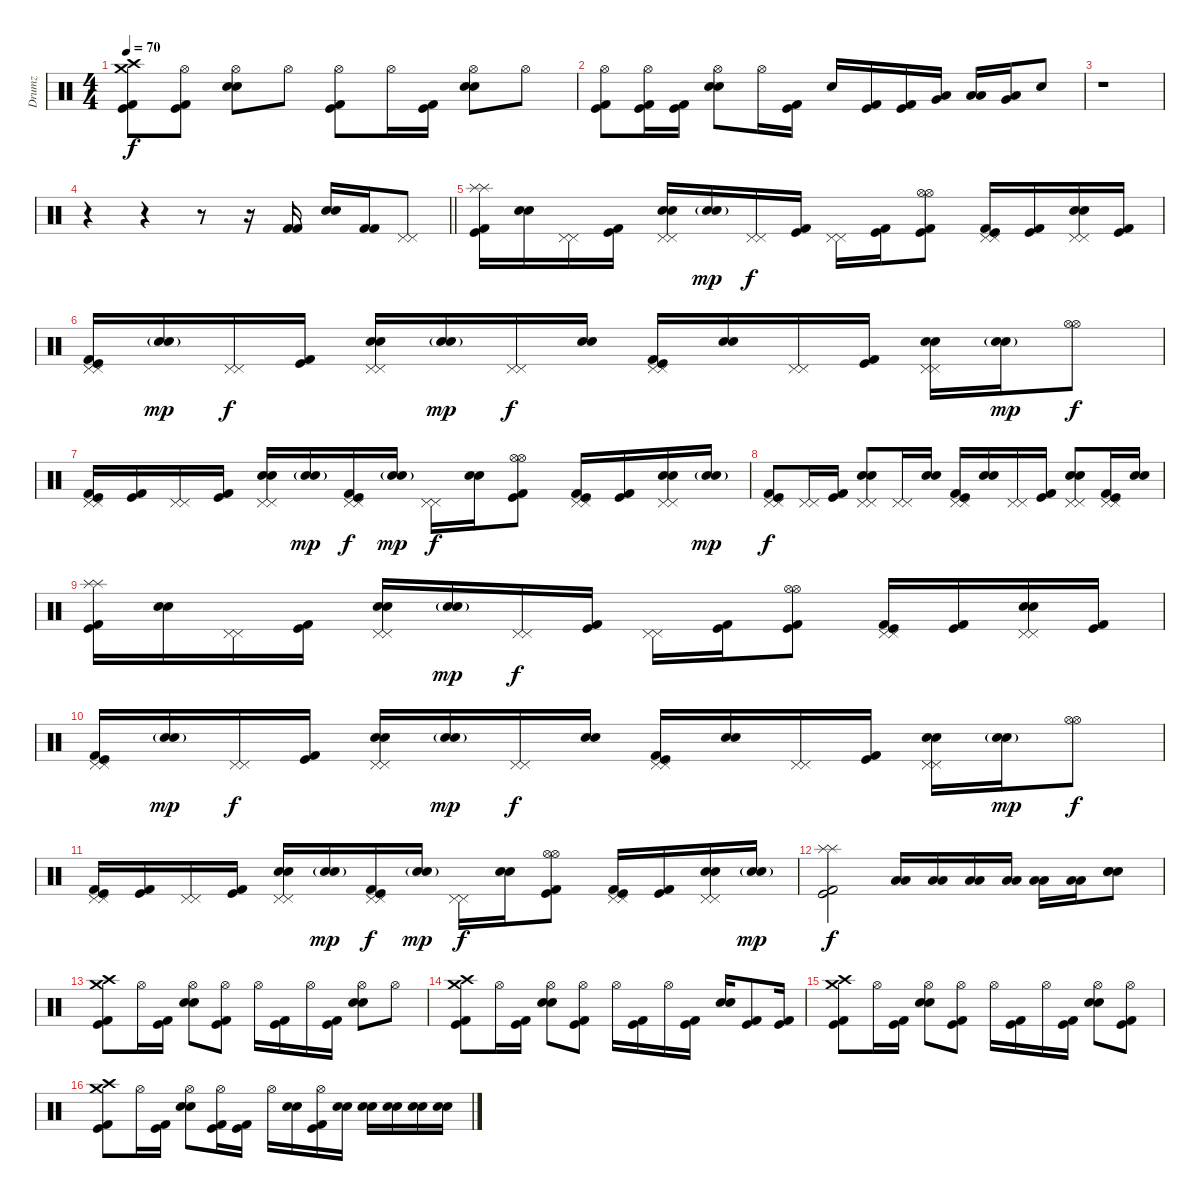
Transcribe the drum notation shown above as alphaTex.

\track ("Drumz" "Drumz") {instrument percussion}
\staff {score}
\articulation defaults
\ts (4 4)
\tempo 70
\clef neutral
\ks c
("Crash high (hit)" "Crash medium (hit)" "Kick (hit) 2" "Kick (hit)").8{dy f} ("Hi-Hat (open)" "Kick (hit) 2" "Kick (hit)").8 ("Hi-Hat (open)" "Electric Snare (hit)" "Electric Snare (hit)").8 "Hi-Hat (open)".8 ("Hi-Hat (open)" "Kick (hit) 2" "Kick (hit)").8 "Hi-Hat (open)".16 ("Kick (hit) 2" "Kick (hit)").16 ("Hi-Hat (open)" "Electric Snare (hit)" "Electric Snare (hit)").8 "Hi-Hat (open)".8 |
("Hi-Hat (open)" "Kick (hit) 2" "Kick (hit)").8 ("Hi-Hat (open)" "Kick (hit)" "Kick (hit) 2").16 ("Kick (hit)" "Kick (hit) 2").16 ("Hi-Hat (open)" "Electric Snare (hit)" "Electric Snare (hit)").8 "Hi-Hat (open)".16 ("Kick (hit)" "Kick (hit) 2").16 "Electric Snare (hit)".16 ("Kick (hit)" "Kick (hit) 2").16 ("Kick (hit)" "Kick (hit) 2").16 ("Very Low Tom (hit)" "Low Floor Tom (hit)").16 ("Low Tom (hit)" "Low Tom (hit)").16 ("Very Low Tom (hit)" "Low Floor Tom (hit)").16 "Snare (hit) 2".8 |
r.1 |
\barLineRight lightlight
r.4 r.4 r.8 r.16 ("Kick (hit) 2" "Kick (hit) 2").16 ("Snare (hit) 2" "Snare (hit) 2").16 ("Kick (hit) 2" "Kick (hit) 2").16 ("Pedal Hi-Hat (hit)" "Pedal Hi-Hat (hit)").8 |
("Splash (hit)" "Splash (hit)" "Kick (hit) 2" "Kick (hit)").16 ("Snare (hit) 2" "Snare (hit) 2").16 ("Pedal Hi-Hat (hit)" "Pedal Hi-Hat (hit)").16 ("Kick (hit) 2" "Kick (hit)").16 ("Pedal Hi-Hat (hit)" "Pedal Hi-Hat (hit)" "Snare (hit) 2" "Snare (hit) 2").16 ("Snare (hit) 2"{g} "Snare (hit) 2"{g}).16{dy mp} ("Pedal Hi-Hat (hit)" "Pedal Hi-Hat (hit)").16{dy f} ("Kick (hit) 2" "Kick (hit)").16 ("Pedal Hi-Hat (hit)" "Pedal Hi-Hat (hit)").16 ("Kick (hit) 2" "Kick (hit)").16 ("Hi-Hat (open)" "Hi-Hat (open)" "Kick (hit) 2" "Kick (hit)").8 ("Pedal Hi-Hat (hit)" "Pedal Hi-Hat (hit)" "Kick (hit) 2" "Kick (hit)").16 ("Kick (hit) 2" "Kick (hit)").16 ("Pedal Hi-Hat (hit)" "Pedal Hi-Hat (hit)" "Snare (hit) 2" "Snare (hit) 2").16 ("Kick (hit) 2" "Kick (hit)").16 |
("Pedal Hi-Hat (hit)" "Pedal Hi-Hat (hit)" "Kick (hit) 2" "Kick (hit)").16 ("Snare (hit) 2"{g} "Snare (hit) 2"{g}).16{dy mp} ("Pedal Hi-Hat (hit)" "Pedal Hi-Hat (hit)").16{dy f} ("Kick (hit) 2" "Kick (hit)").16 ("Pedal Hi-Hat (hit)" "Pedal Hi-Hat (hit)" "Snare (hit) 2" "Snare (hit) 2").16 ("Snare (hit) 2"{g} "Snare (hit) 2"{g}).16{dy mp} ("Pedal Hi-Hat (hit)" "Pedal Hi-Hat (hit)").16{dy f} ("Snare (hit) 2" "Snare (hit) 2").16 ("Pedal Hi-Hat (hit)" "Pedal Hi-Hat (hit)" "Kick (hit) 2" "Kick (hit)").16 ("Snare (hit) 2" "Snare (hit) 2").16 ("Pedal Hi-Hat (hit)" "Pedal Hi-Hat (hit)").16 ("Kick (hit) 2" "Kick (hit)").16 ("Pedal Hi-Hat (hit)" "Pedal Hi-Hat (hit)" "Snare (hit) 2" "Snare (hit) 2").16 ("Snare (hit) 2"{g} "Snare (hit) 2"{g}).16{dy mp} ("Hi-Hat (open)" "Hi-Hat (open)").8{dy f} |
("Pedal Hi-Hat (hit)" "Pedal Hi-Hat (hit)" "Kick (hit) 2" "Kick (hit)").16 ("Kick (hit) 2" "Kick (hit)").16 ("Pedal Hi-Hat (hit)" "Pedal Hi-Hat (hit)").16 ("Kick (hit) 2" "Kick (hit)").16 ("Pedal Hi-Hat (hit)" "Pedal Hi-Hat (hit)" "Snare (hit) 2" "Snare (hit) 2").16 ("Snare (hit) 2"{g} "Snare (hit) 2"{g}).16{dy mp} ("Pedal Hi-Hat (hit)" "Pedal Hi-Hat (hit)" "Kick (hit) 2" "Kick (hit)").16{dy f} ("Snare (hit) 2"{g} "Snare (hit) 2"{g}).16{dy mp} ("Pedal Hi-Hat (hit)" "Pedal Hi-Hat (hit)").16{dy f} ("Snare (hit) 2" "Snare (hit) 2").16 ("Hi-Hat (open)" "Hi-Hat (open)" "Kick (hit) 2" "Kick (hit)").8 ("Pedal Hi-Hat (hit)" "Pedal Hi-Hat (hit)" "Kick (hit) 2" "Kick (hit)").16 ("Kick (hit) 2" "Kick (hit)").16 ("Pedal Hi-Hat (hit)" "Pedal Hi-Hat (hit)" "Snare (hit) 2" "Snare (hit) 2").16 ("Snare (hit) 2"{g} "Snare (hit) 2"{g}).16{dy mp} |
("Pedal Hi-Hat (hit)" "Pedal Hi-Hat (hit)" "Kick (hit) 2" "Kick (hit)").8{dy f} ("Pedal Hi-Hat (hit)" "Pedal Hi-Hat (hit)").16 ("Kick (hit) 2" "Kick (hit)").16 ("Pedal Hi-Hat (hit)" "Pedal Hi-Hat (hit)" "Snare (hit) 2" "Snare (hit) 2").8 ("Pedal Hi-Hat (hit)" "Pedal Hi-Hat (hit)").16 ("Snare (hit) 2" "Snare (hit) 2").16 ("Pedal Hi-Hat (hit)" "Pedal Hi-Hat (hit)" "Kick (hit) 2" "Kick (hit)").16 ("Snare (hit) 2" "Snare (hit) 2").16 ("Pedal Hi-Hat (hit)" "Pedal Hi-Hat (hit)").16 ("Kick (hit) 2" "Kick (hit)").16 ("Pedal Hi-Hat (hit)" "Pedal Hi-Hat (hit)" "Snare (hit) 2" "Snare (hit) 2").8 ("Pedal Hi-Hat (hit)" "Pedal Hi-Hat (hit)" "Kick (hit) 2" "Kick (hit)").16 ("Snare (hit) 2" "Snare (hit) 2").16 |
("Splash (hit)" "Splash (hit)" "Kick (hit) 2" "Kick (hit)").16 ("Snare (hit) 2" "Snare (hit) 2").16 ("Pedal Hi-Hat (hit)" "Pedal Hi-Hat (hit)").16 ("Kick (hit) 2" "Kick (hit)").16 ("Pedal Hi-Hat (hit)" "Pedal Hi-Hat (hit)" "Snare (hit) 2" "Snare (hit) 2").16 ("Snare (hit) 2"{g} "Snare (hit) 2"{g}).16{dy mp} ("Pedal Hi-Hat (hit)" "Pedal Hi-Hat (hit)").16{dy f} ("Kick (hit) 2" "Kick (hit)").16 ("Pedal Hi-Hat (hit)" "Pedal Hi-Hat (hit)").16 ("Kick (hit) 2" "Kick (hit)").16 ("Hi-Hat (open)" "Hi-Hat (open)" "Kick (hit) 2" "Kick (hit)").8 ("Pedal Hi-Hat (hit)" "Pedal Hi-Hat (hit)" "Kick (hit) 2" "Kick (hit)").16 ("Kick (hit) 2" "Kick (hit)").16 ("Pedal Hi-Hat (hit)" "Pedal Hi-Hat (hit)" "Snare (hit) 2" "Snare (hit) 2").16 ("Kick (hit) 2" "Kick (hit)").16 |
("Pedal Hi-Hat (hit)" "Pedal Hi-Hat (hit)" "Kick (hit) 2" "Kick (hit)").16 ("Snare (hit) 2"{g} "Snare (hit) 2"{g}).16{dy mp} ("Pedal Hi-Hat (hit)" "Pedal Hi-Hat (hit)").16{dy f} ("Kick (hit) 2" "Kick (hit)").16 ("Pedal Hi-Hat (hit)" "Pedal Hi-Hat (hit)" "Snare (hit) 2" "Snare (hit) 2").16 ("Snare (hit) 2"{g} "Snare (hit) 2"{g}).16{dy mp} ("Pedal Hi-Hat (hit)" "Pedal Hi-Hat (hit)").16{dy f} ("Snare (hit) 2" "Snare (hit) 2").16 ("Pedal Hi-Hat (hit)" "Pedal Hi-Hat (hit)" "Kick (hit) 2" "Kick (hit)").16 ("Snare (hit) 2" "Snare (hit) 2").16 ("Pedal Hi-Hat (hit)" "Pedal Hi-Hat (hit)").16 ("Kick (hit) 2" "Kick (hit)").16 ("Pedal Hi-Hat (hit)" "Pedal Hi-Hat (hit)" "Snare (hit) 2" "Snare (hit) 2").16 ("Snare (hit) 2"{g} "Snare (hit) 2"{g}).16{dy mp} ("Hi-Hat (open)" "Hi-Hat (open)").8{dy f} |
("Pedal Hi-Hat (hit)" "Pedal Hi-Hat (hit)" "Kick (hit) 2" "Kick (hit)").16 ("Kick (hit) 2" "Kick (hit)").16 ("Pedal Hi-Hat (hit)" "Pedal Hi-Hat (hit)").16 ("Kick (hit) 2" "Kick (hit)").16 ("Pedal Hi-Hat (hit)" "Pedal Hi-Hat (hit)" "Snare (hit) 2" "Snare (hit) 2").16 ("Snare (hit) 2"{g} "Snare (hit) 2"{g}).16{dy mp} ("Pedal Hi-Hat (hit)" "Pedal Hi-Hat (hit)" "Kick (hit) 2" "Kick (hit)").16{dy f} ("Snare (hit) 2"{g} "Snare (hit) 2"{g}).16{dy mp} ("Pedal Hi-Hat (hit)" "Pedal Hi-Hat (hit)").16{dy f} ("Snare (hit) 2" "Snare (hit) 2").16 ("Hi-Hat (open)" "Hi-Hat (open)" "Kick (hit) 2" "Kick (hit)").8 ("Pedal Hi-Hat (hit)" "Pedal Hi-Hat (hit)" "Kick (hit) 2" "Kick (hit)").16 ("Kick (hit) 2" "Kick (hit)").16 ("Pedal Hi-Hat (hit)" "Pedal Hi-Hat (hit)" "Snare (hit) 2" "Snare (hit) 2").16 ("Snare (hit) 2"{g} "Snare (hit) 2"{g}).16{dy mp} |
("Splash (hit)" "Splash (hit)" "Kick (hit)" "Kick (hit) 2").2{dy f} ("Low Tom (hit)" "Low Floor Tom (hit)").16 ("Low Tom (hit)" "Low Floor Tom (hit)").16 ("Low Tom (hit)" "Low Floor Tom (hit)").16 ("Low Tom (hit)" "Low Floor Tom (hit)").16 ("Low Tom (hit)" "Low Floor Tom (hit)").16 ("Low Tom (hit)" "Low Floor Tom (hit)").16 ("Electric Snare (hit)" "Electric Snare (hit)" "Electric Snare (hit)").8 |
("Crash medium (hit)" "Crash high (hit)" "Kick (hit) 2" "Kick (hit)").8 "Hi-Hat (open)".16 ("Kick (hit)" "Kick (hit) 2").16 ("Hi-Hat (open)" "Electric Snare (hit)" "Electric Snare (hit)").8 ("Hi-Hat (open)" "Kick (hit)" "Kick (hit) 2").8 "Hi-Hat (open)".16 ("Kick (hit) 2" "Kick (hit)").16 "Hi-Hat (open)".16 ("Kick (hit) 2" "Kick (hit)").16 ("Hi-Hat (open)" "Electric Snare (hit)" "Electric Snare (hit)").8 "Hi-Hat (open)".8 |
("Crash medium (hit)" "Crash high (hit)" "Kick (hit)" "Kick (hit) 2").8 "Hi-Hat (open)".16 ("Kick (hit) 2" "Kick (hit)").16 ("Hi-Hat (open)" "Electric Snare (hit)" "Electric Snare (hit)").8 ("Hi-Hat (open)" "Kick (hit) 2" "Kick (hit)").8 "Hi-Hat (open)".16 ("Kick (hit)" "Kick (hit) 2").16 "Hi-Hat (open)".16 ("Kick (hit)" "Kick (hit) 2").16 ("Electric Snare (hit)" "Electric Snare (hit)").16 ("Kick (hit) 2" "Kick (hit)").8 ("Kick (hit) 2" "Kick (hit)").16 |
("Crash medium (hit)" "Crash high (hit)" "Kick (hit) 2" "Kick (hit)").8 "Hi-Hat (open)".16 ("Kick (hit)" "Kick (hit) 2").16 ("Hi-Hat (open)" "Electric Snare (hit)" "Electric Snare (hit)").8 ("Hi-Hat (open)" "Kick (hit)" "Kick (hit) 2").8 "Hi-Hat (open)".16 ("Kick (hit) 2" "Kick (hit)").16 "Hi-Hat (open)".16 ("Kick (hit) 2" "Kick (hit)").16 ("Hi-Hat (open)" "Electric Snare (hit)" "Electric Snare (hit)").8 ("Hi-Hat (open)" "Kick (hit)" "Kick (hit) 2").8 |
("Crash medium (hit)" "Crash high (hit)" "Kick (hit) 2" "Kick (hit)").8 "Hi-Hat (open)".16 ("Kick (hit)" "Kick (hit) 2").16 ("Hi-Hat (open)" "Electric Snare (hit)" "Electric Snare (hit)").8 ("Hi-Hat (open)" "Kick (hit) 2" "Kick (hit)").16 ("Kick (hit) 2" "Kick (hit)").16 "Hi-Hat (open)".16 ("Electric Snare (hit)" "Electric Snare (hit)").16 ("Hi-Hat (open)" "Kick (hit)" "Kick (hit) 2").16 ("Electric Snare (hit)" "Electric Snare (hit)").16 ("Electric Snare (hit)" "Electric Snare (hit)").16 ("Electric Snare (hit)" "Electric Snare (hit)").16 ("Electric Snare (hit)" "Electric Snare (hit)").16 ("Electric Snare (hit)" "Electric Snare (hit)").16
